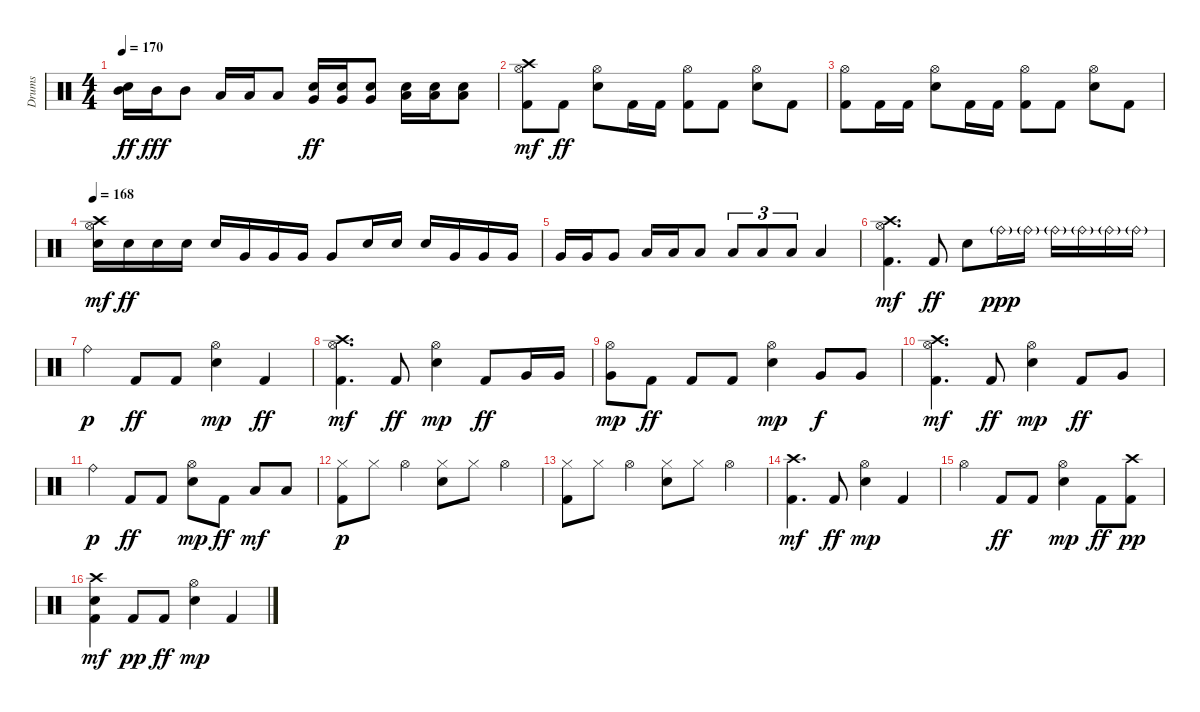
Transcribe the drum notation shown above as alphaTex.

\track ("Drums" "Drums") {instrument percussion}
\staff {score}
\articulation defaults
\ts (4 4)
\tempo 170
\clef neutral
\ks c
("Mid Tom (hit)" "Electric Snare (hit)").16{dy ff} "Mid Tom (hit)".16{dy fff} "Mid Tom (hit)".8 "Low Tom (hit)".16 "Low Tom (hit)".16 "Low Tom (hit)".8 ("Very Low Tom (hit)" "Electric Snare (hit)").16{dy ff} ("Very Low Tom (hit)" "Electric Snare (hit)").16 ("Very Low Tom (hit)" "Electric Snare (hit)").8 ("Low Floor Tom (hit)" "Electric Snare (hit)").16 ("Low Floor Tom (hit)" "Electric Snare (hit)").16 ("Low Floor Tom (hit)" "Electric Snare (hit)").8 |
("Kick (hit) 2" "Hi-Hat (open)" "Crash high (hit)").8{dy mf} "Kick (hit) 2".8{dy ff} ("Electric Snare (hit)" "Hi-Hat (open)").8 "Kick (hit) 2".16 "Kick (hit) 2".16 ("Kick (hit) 2" "Hi-Hat (open)").8 "Kick (hit) 2".8 ("Electric Snare (hit)" "Hi-Hat (open)").8 "Kick (hit) 2".8 |
("Kick (hit) 2" "Hi-Hat (open)").8 "Kick (hit) 2".16 "Kick (hit) 2".16 ("Electric Snare (hit)" "Hi-Hat (open)").8 "Kick (hit) 2".16 "Kick (hit) 2".16 ("Kick (hit) 2" "Hi-Hat (open)").8 "Kick (hit) 2".8 ("Electric Snare (hit)" "Hi-Hat (open)").8 "Kick (hit) 2".8 |
\tempo 168
("Electric Snare (hit)" "Hi-Hat (open)" "Crash high (hit)").16{dy mf} "Electric Snare (hit)".16{dy ff} "Electric Snare (hit)".16 "Electric Snare (hit)".16 "Electric Snare (hit)".16 "Very Low Tom (hit)".16 "Very Low Tom (hit)".16 "Very Low Tom (hit)".16 "Very Low Tom (hit)".8 "Electric Snare (hit)".16 "Electric Snare (hit)".16 "Electric Snare (hit)".16 "Very Low Tom (hit)".16 "Very Low Tom (hit)".16 "Very Low Tom (hit)".16 |
"Very Low Tom (hit)".16 "Very Low Tom (hit)".16 "Very Low Tom (hit)".8 "Low Floor Tom (hit)".16 "Low Floor Tom (hit)".16 "Low Floor Tom (hit)".8 "Low Floor Tom (hit)".8{tu (3 2)} "Low Floor Tom (hit)".8{tu (3 2)} "Low Floor Tom (hit)".8{tu (3 2)} "Low Floor Tom (hit)".4 |
("Kick (hit) 2" "Hi-Hat (open)" "Crash high (hit)").4{d dy mf} "Kick (hit) 2".8{dy ff} "Electric Snare (hit)".8 "Ride (bell)"{g}.16{dy ppp} "Ride (bell)"{g}.16 "Ride (bell)"{g}.16 "Ride (bell)"{g}.16 "Ride (bell)"{g}.16 "Ride (bell)"{g}.16 |
"Ride (bell)".4{dy p} "Kick (hit) 2".8{dy ff} "Kick (hit) 2".8 ("Electric Snare (hit)" "Hi-Hat (open)").4{dy mp} "Kick (hit) 2".4{dy ff} |
("Kick (hit) 2" "Hi-Hat (open)" "Crash high (hit)").4{d dy mf} "Kick (hit) 2".8{dy ff} ("Electric Snare (hit)" "Hi-Hat (open)").4{dy mp} "Kick (hit) 2".8{dy ff} "Very Low Tom (hit)".16 "Very Low Tom (hit)".16 |
("Very Low Tom (hit)" "Hi-Hat (open)").8{dy mp} "Kick (hit) 2".8{dy ff} "Kick (hit) 2".8 "Kick (hit) 2".8 ("Electric Snare (hit)" "Hi-Hat (open)").4{dy mp} "Very Low Tom (hit)".8{dy f} "Very Low Tom (hit)".8 |
("Kick (hit) 2" "Hi-Hat (open)" "Crash high (hit)").4{d dy mf} "Kick (hit) 2".8{dy ff} ("Electric Snare (hit)" "Hi-Hat (open)").4{dy mp} "Kick (hit) 2".8{dy ff} "Very Low Tom (hit)".8 |
"Ride (bell)".4{dy p} "Kick (hit) 2".8{dy ff} "Kick (hit) 2".8 ("Electric Snare (hit)" "Hi-Hat (open)").8{dy mp} "Kick (hit) 2".8{dy ff} "Low Floor Tom (hit)".8{dy mf} "Low Floor Tom (hit)".8 |
("Kick (hit) 2" "Hi-Hat (closed)").8{dy p} "Hi-Hat (closed)".8 "Hi-Hat (open)".4 ("Electric Snare (hit)" "Hi-Hat (closed)").8 "Hi-Hat (closed)".8 "Hi-Hat (open)".4 |
("Kick (hit) 2" "Hi-Hat (closed)").8 "Hi-Hat (closed)".8 "Hi-Hat (open)".4 ("Electric Snare (hit)" "Hi-Hat (closed)").8 "Hi-Hat (closed)".8 "Hi-Hat (open)".4 |
("Kick (hit) 2" "Crash high (hit)").4{d dy mf} "Kick (hit) 2".8{dy ff} ("Electric Snare (hit)" "Hi-Hat (open)").4{dy mp} "Kick (hit) 2".4 |
"Hi-Hat (open)".4 "Kick (hit) 2".8{dy ff} "Kick (hit) 2".8 ("Electric Snare (hit)" "Hi-Hat (open)").4{dy mp} "Kick (hit) 2".8{dy ff} ("Kick (hit) 2" "Crash high (hit)").8{dy pp} |
("Kick (hit) 2" "Electric Snare (hit)" "Crash high (hit)").4{dy mf} "Kick (hit) 2".8{dy pp} "Kick (hit) 2".8{dy ff} ("Electric Snare (hit)" "Hi-Hat (open)").4{dy mp} "Kick (hit) 2".4
